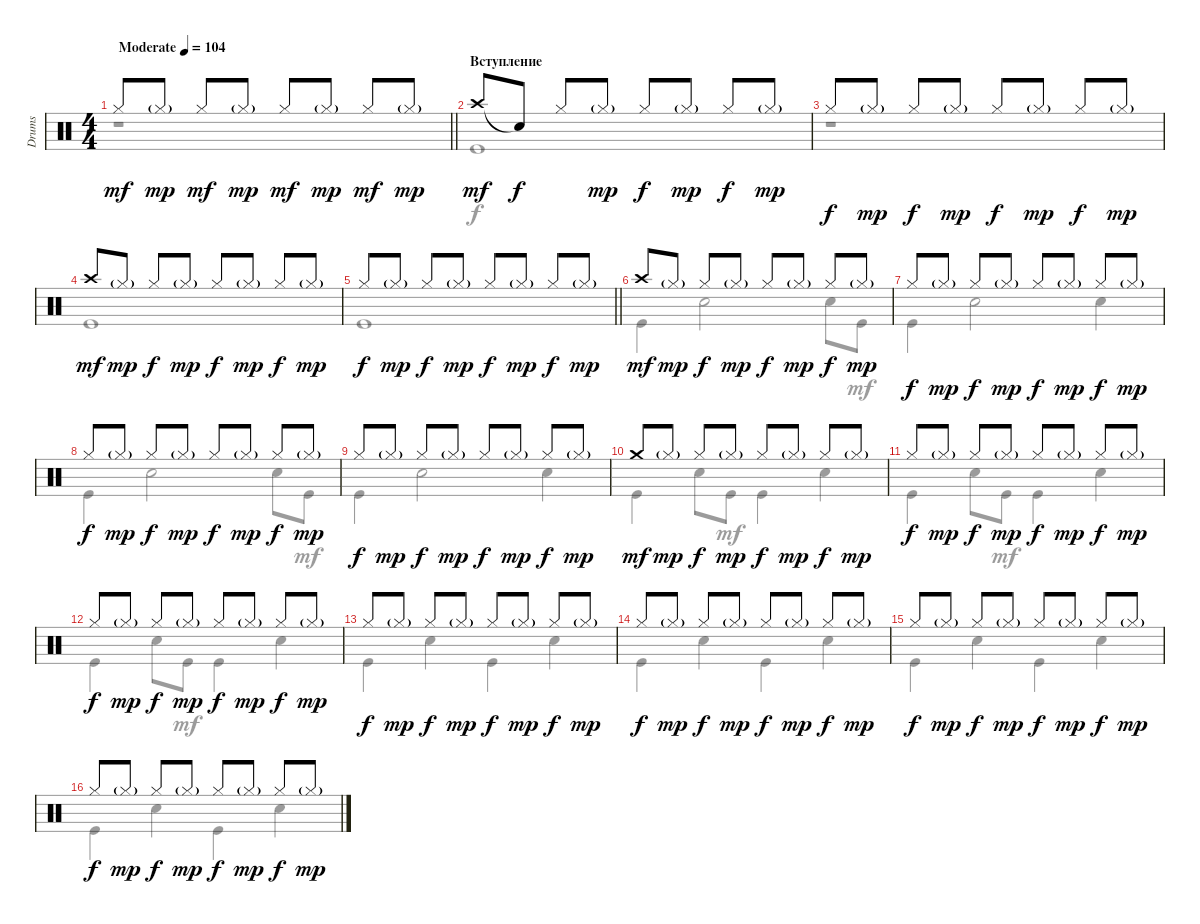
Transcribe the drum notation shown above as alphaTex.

\track ("Drums" "Drums") {instrument percussion}
\staff {score}
\articulation defaults
\voice
\ts (4 4)
\tempo (104 "Moderate")
\clef neutral
\barLineRight lightlight
\ks c "Hi-Hat (closed)".8{dy mf} "Hi-Hat (closed)"{g}.8{dy mp} "Hi-Hat (closed)".8{dy mf} "Hi-Hat (closed)"{g}.8{dy mp} "Hi-Hat (closed)".8{dy mf} "Hi-Hat (closed)"{g}.8{dy mp} "Hi-Hat (closed)".8{dy mf} "Hi-Hat (closed)"{g}.8{dy mp}
|
\section ("" "Вступление")
"Crash high (hit)".8{dy mf} "Snare (hit)"{t}.8{dy f} "Hi-Hat (closed)".8 "Hi-Hat (closed)"{g}.8{dy mp} "Hi-Hat (closed)".8{dy f} "Hi-Hat (closed)"{g}.8{dy mp} "Hi-Hat (closed)".8{dy f} "Hi-Hat (closed)"{g}.8{dy mp} |
"Hi-Hat (closed)".8{dy f} "Hi-Hat (closed)"{g}.8{dy mp} "Hi-Hat (closed)".8{dy f} "Hi-Hat (closed)"{g}.8{dy mp} "Hi-Hat (closed)".8{dy f} "Hi-Hat (closed)"{g}.8{dy mp} "Hi-Hat (closed)".8{dy f} "Hi-Hat (closed)"{g}.8{dy mp} |
"Crash high (hit)".8{dy mf} "Hi-Hat (closed)"{g}.8{dy mp} "Hi-Hat (closed)".8{dy f} "Hi-Hat (closed)"{g}.8{dy mp} "Hi-Hat (closed)".8{dy f} "Hi-Hat (closed)"{g}.8{dy mp} "Hi-Hat (closed)".8{dy f} "Hi-Hat (closed)"{g}.8{dy mp} |
\barLineRight lightlight "Hi-Hat (closed)".8{dy f} "Hi-Hat (closed)"{g}.8{dy mp} "Hi-Hat (closed)".8{dy f} "Hi-Hat (closed)"{g}.8{dy mp} "Hi-Hat (closed)".8{dy f} "Hi-Hat (closed)"{g}.8{dy mp} "Hi-Hat (closed)".8{dy f} "Hi-Hat (closed)"{g}.8{dy mp}
|
"Crash high (hit)".8{dy mf} "Hi-Hat (closed)"{g}.8{dy mp} "Hi-Hat (closed)".8{dy f} "Hi-Hat (closed)"{g}.8{dy mp} "Hi-Hat (closed)".8{dy f} "Hi-Hat (closed)"{g}.8{dy mp} "Hi-Hat (closed)".8{dy f} "Hi-Hat (closed)"{g}.8{dy mp} |
"Hi-Hat (closed)".8{dy f} "Hi-Hat (closed)"{g}.8{dy mp} "Hi-Hat (closed)".8{dy f} "Hi-Hat (closed)"{g}.8{dy mp} "Hi-Hat (closed)".8{dy f} "Hi-Hat (closed)"{g}.8{dy mp} "Hi-Hat (closed)".8{dy f} "Hi-Hat (closed)"{g}.8{dy mp} |
"Hi-Hat (closed)".8{dy f} "Hi-Hat (closed)"{g}.8{dy mp} "Hi-Hat (closed)".8{dy f} "Hi-Hat (closed)"{g}.8{dy mp} "Hi-Hat (closed)".8{dy f} "Hi-Hat (closed)"{g}.8{dy mp} "Hi-Hat (closed)".8{dy f} "Hi-Hat (closed)"{g}.8{dy mp} |
"Hi-Hat (closed)".8{dy f} "Hi-Hat (closed)"{g}.8{dy mp} "Hi-Hat (closed)".8{dy f} "Hi-Hat (closed)"{g}.8{dy mp} "Hi-Hat (closed)".8{dy f} "Hi-Hat (closed)"{g}.8{dy mp} "Hi-Hat (closed)".8{dy f} "Hi-Hat (closed)"{g}.8{dy mp} |
"Crash medium (hit)".8{dy mf} "Hi-Hat (closed)"{g}.8{dy mp} "Hi-Hat (closed)".8{dy f} "Hi-Hat (closed)"{g}.8{dy mp} "Hi-Hat (closed)".8{dy f} "Hi-Hat (closed)"{g}.8{dy mp} "Hi-Hat (closed)".8{dy f} "Hi-Hat (closed)"{g}.8{dy mp} |
"Hi-Hat (closed)".8{dy f} "Hi-Hat (closed)"{g}.8{dy mp} "Hi-Hat (closed)".8{dy f} "Hi-Hat (closed)"{g}.8{dy mp} "Hi-Hat (closed)".8{dy f} "Hi-Hat (closed)"{g}.8{dy mp} "Hi-Hat (closed)".8{dy f} "Hi-Hat (closed)"{g}.8{dy mp} |
"Hi-Hat (closed)".8{dy f} "Hi-Hat (closed)"{g}.8{dy mp} "Hi-Hat (closed)".8{dy f} "Hi-Hat (closed)"{g}.8{dy mp} "Hi-Hat (closed)".8{dy f} "Hi-Hat (closed)"{g}.8{dy mp} "Hi-Hat (closed)".8{dy f} "Hi-Hat (closed)"{g}.8{dy mp} |
"Hi-Hat (closed)".8{dy f} "Hi-Hat (closed)"{g}.8{dy mp} "Hi-Hat (closed)".8{dy f} "Hi-Hat (closed)"{g}.8{dy mp} "Hi-Hat (closed)".8{dy f} "Hi-Hat (closed)"{g}.8{dy mp} "Hi-Hat (closed)".8{dy f} "Hi-Hat (closed)"{g}.8{dy mp} |
"Hi-Hat (closed)".8{dy f} "Hi-Hat (closed)"{g}.8{dy mp} "Hi-Hat (closed)".8{dy f} "Hi-Hat (closed)"{g}.8{dy mp} "Hi-Hat (closed)".8{dy f} "Hi-Hat (closed)"{g}.8{dy mp} "Hi-Hat (closed)".8{dy f} "Hi-Hat (closed)"{g}.8{dy mp} |
"Hi-Hat (closed)".8{dy f} "Hi-Hat (closed)"{g}.8{dy mp} "Hi-Hat (closed)".8{dy f} "Hi-Hat (closed)"{g}.8{dy mp} "Hi-Hat (closed)".8{dy f} "Hi-Hat (closed)"{g}.8{dy mp} "Hi-Hat (closed)".8{dy f} "Hi-Hat (closed)"{g}.8{dy mp} |
"Hi-Hat (closed)".8{dy f} "Hi-Hat (closed)"{g}.8{dy mp} "Hi-Hat (closed)".8{dy f} "Hi-Hat (closed)"{g}.8{dy mp} "Hi-Hat (closed)".8{dy f} "Hi-Hat (closed)"{g}.8{dy mp} "Hi-Hat (closed)".8{dy f} "Hi-Hat (closed)"{g}.8{dy mp}
\voice
\clef neutral
\ottava regular
\simile none
\barLineRight lightlight
\ks c
r.1{dy f} |
"Kick (hit)".1 |
r.1 |
"Kick (hit)".1 |
\barLineRight lightlight "Kick (hit)".1
|
"Kick (hit)".4 "Snare (hit) 2".2 "Snare (hit) 2".8 "Kick (hit)".8{dy mf} |
"Kick (hit)".4{dy f} "Snare (hit) 2".2 "Snare (hit) 2".4 |
"Kick (hit)".4 "Snare (hit) 2".2 "Snare (hit) 2".8 "Kick (hit)".8{dy mf} |
"Kick (hit)".4{dy f} "Snare (hit) 2".2 "Snare (hit) 2".4 |
"Kick (hit)".4 "Snare (hit) 2".8 "Kick (hit)".8{dy mf} "Kick (hit)".4{dy f} "Snare (hit) 2".4 |
"Kick (hit)".4 "Snare (hit) 2".8 "Kick (hit)".8{dy mf} "Kick (hit)".4{dy f} "Snare (hit) 2".4 |
"Kick (hit)".4 "Snare (hit) 2".8 "Kick (hit)".8{dy mf} "Kick (hit)".4{dy f} "Snare (hit) 2".4 |
"Kick (hit)".4 "Snare (hit) 2".4 "Kick (hit)".4 "Snare (hit) 2".4 |
"Kick (hit)".4 "Snare (hit) 2".4 "Kick (hit)".4 "Snare (hit) 2".4 |
"Kick (hit)".4 "Snare (hit) 2".4 "Kick (hit)".4 "Snare (hit) 2".4 |
"Kick (hit)".4 "Snare (hit) 2".4 "Kick (hit)".4 "Snare (hit) 2".4
